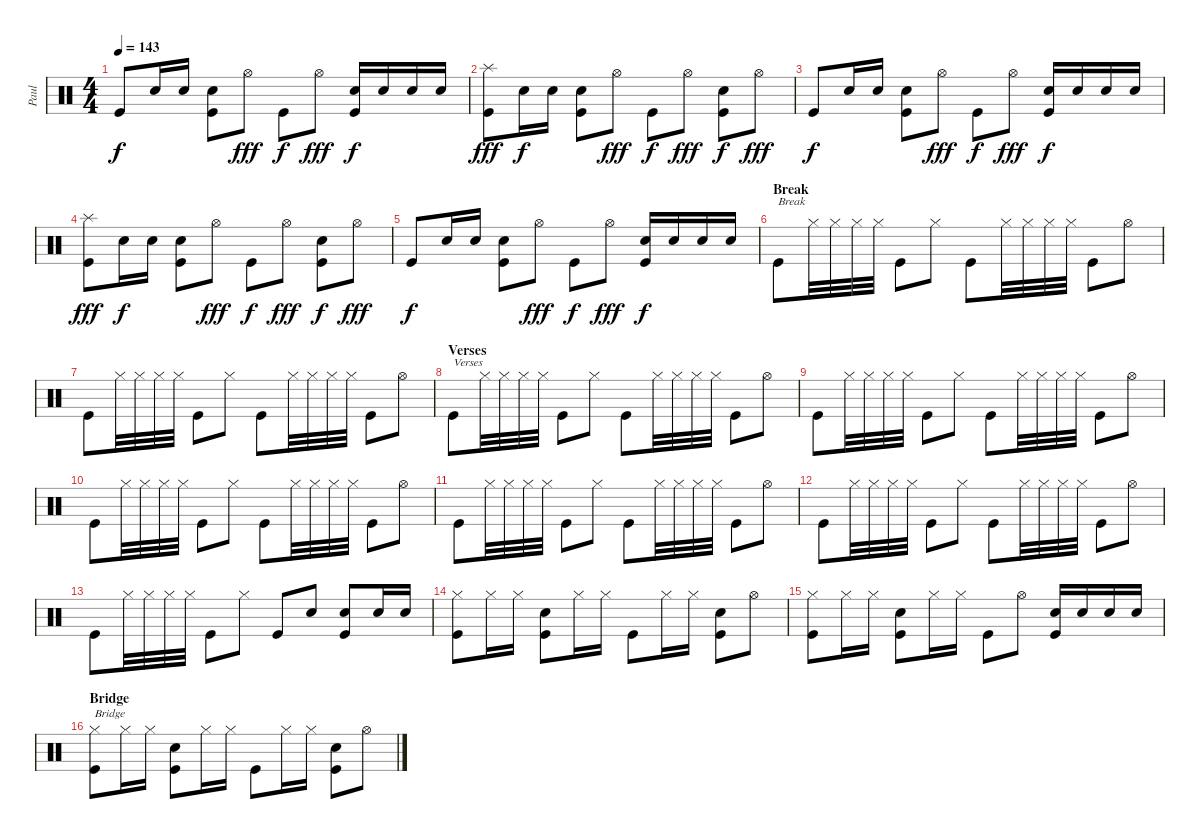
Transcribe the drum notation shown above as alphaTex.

\track ("Paul" "Paul") {instrument percussion}
\staff {score}
\articulation defaults
\ts (4 4)
\tempo 143
\clef neutral
\ks c "Kick (hit)".8{dy f} "Electric Snare (hit)".16 "Electric Snare (hit)".16
("Kick (hit)" "Electric Snare (hit)").8 "Hi-Hat (open)".8{dy fff} "Kick (hit)".8{dy f} "Hi-Hat (open)".8{dy fff} ("Kick (hit)" "Electric Snare (hit)").16{dy f} "Electric Snare (hit)".16 "Electric Snare (hit)".16 "Electric Snare (hit)".16 |
("Splash (hit)" "Kick (hit)").8{dy fff} "Electric Snare (hit)".16{dy f} "Electric Snare (hit)".16 ("Kick (hit)" "Electric Snare (hit)").8 "Hi-Hat (open)".8{dy fff} "Kick (hit)".8{dy f} "Hi-Hat (open)".8{dy fff} ("Kick (hit)" "Electric Snare (hit)").8{dy f} "Hi-Hat (open)".8{dy fff} |
"Kick (hit)".8{dy f} "Electric Snare (hit)".16 "Electric Snare (hit)".16 ("Kick (hit)" "Electric Snare (hit)").8 "Hi-Hat (open)".8{dy fff} "Kick (hit)".8{dy f} "Hi-Hat (open)".8{dy fff} ("Kick (hit)" "Electric Snare (hit)").16{dy f} "Electric Snare (hit)".16 "Electric Snare (hit)".16 "Electric Snare (hit)".16 |
("Splash (hit)" "Kick (hit)").8{dy fff} "Electric Snare (hit)".16{dy f} "Electric Snare (hit)".16 ("Kick (hit)" "Electric Snare (hit)").8 "Hi-Hat (open)".8{dy fff} "Kick (hit)".8{dy f} "Hi-Hat (open)".8{dy fff} ("Kick (hit)" "Electric Snare (hit)").8{dy f} "Hi-Hat (open)".8{dy fff} |
"Kick (hit)".8{dy f} "Electric Snare (hit)".16 "Electric Snare (hit)".16 ("Kick (hit)" "Electric Snare (hit)").8 "Hi-Hat (open)".8{dy fff} "Kick (hit)".8{dy f} "Hi-Hat (open)".8{dy fff} ("Kick (hit)" "Electric Snare (hit)").16{dy f} "Electric Snare (hit)".16 "Electric Snare (hit)".16 "Electric Snare (hit)".16 |
\section ("" "Break")
"Kick (hit)".8{txt "Break"} "Hi-Hat (closed)".32 "Hi-Hat (closed)".32 "Hi-Hat (closed)".32 "Hi-Hat (closed)".32 "Kick (hit)".8 "Hi-Hat (closed)".8 "Kick (hit)".8 "Hi-Hat (closed)".32 "Hi-Hat (closed)".32 "Hi-Hat (closed)".32 "Hi-Hat (closed)".32 "Kick (hit)".8 "Hi-Hat (open)".8 |
"Kick (hit)".8 "Hi-Hat (closed)".32 "Hi-Hat (closed)".32 "Hi-Hat (closed)".32 "Hi-Hat (closed)".32 "Kick (hit)".8 "Hi-Hat (closed)".8 "Kick (hit)".8 "Hi-Hat (closed)".32 "Hi-Hat (closed)".32 "Hi-Hat (closed)".32 "Hi-Hat (closed)".32 "Kick (hit)".8 "Hi-Hat (open)".8 |
\section ("" "Verses")
"Kick (hit)".8{txt "Verses"} "Hi-Hat (closed)".32 "Hi-Hat (closed)".32 "Hi-Hat (closed)".32 "Hi-Hat (closed)".32 "Kick (hit)".8 "Hi-Hat (closed)".8 "Kick (hit)".8 "Hi-Hat (closed)".32 "Hi-Hat (closed)".32 "Hi-Hat (closed)".32 "Hi-Hat (closed)".32 "Kick (hit)".8 "Hi-Hat (open)".8 |
"Kick (hit)".8 "Hi-Hat (closed)".32 "Hi-Hat (closed)".32 "Hi-Hat (closed)".32 "Hi-Hat (closed)".32 "Kick (hit)".8 "Hi-Hat (closed)".8 "Kick (hit)".8 "Hi-Hat (closed)".32 "Hi-Hat (closed)".32 "Hi-Hat (closed)".32 "Hi-Hat (closed)".32 "Kick (hit)".8 "Hi-Hat (open)".8 |
"Kick (hit)".8 "Hi-Hat (closed)".32 "Hi-Hat (closed)".32 "Hi-Hat (closed)".32 "Hi-Hat (closed)".32 "Kick (hit)".8 "Hi-Hat (closed)".8 "Kick (hit)".8 "Hi-Hat (closed)".32 "Hi-Hat (closed)".32 "Hi-Hat (closed)".32 "Hi-Hat (closed)".32 "Kick (hit)".8 "Hi-Hat (open)".8 |
"Kick (hit)".8 "Hi-Hat (closed)".32 "Hi-Hat (closed)".32 "Hi-Hat (closed)".32 "Hi-Hat (closed)".32 "Kick (hit)".8 "Hi-Hat (closed)".8 "Kick (hit)".8 "Hi-Hat (closed)".32 "Hi-Hat (closed)".32 "Hi-Hat (closed)".32 "Hi-Hat (closed)".32 "Kick (hit)".8 "Hi-Hat (open)".8 |
"Kick (hit)".8 "Hi-Hat (closed)".32 "Hi-Hat (closed)".32 "Hi-Hat (closed)".32 "Hi-Hat (closed)".32 "Kick (hit)".8 "Hi-Hat (closed)".8 "Kick (hit)".8 "Hi-Hat (closed)".32 "Hi-Hat (closed)".32 "Hi-Hat (closed)".32 "Hi-Hat (closed)".32 "Kick (hit)".8 "Hi-Hat (open)".8 |
"Kick (hit)".8 "Hi-Hat (closed)".32 "Hi-Hat (closed)".32 "Hi-Hat (closed)".32 "Hi-Hat (closed)".32 "Kick (hit)".8 "Hi-Hat (closed)".8 "Kick (hit)".8 "Electric Snare (hit)".8 ("Kick (hit)" "Electric Snare (hit)").8 "Electric Snare (hit)".16 "Electric Snare (hit)".16 |
("Hi-Hat (closed)" "Kick (hit)").8 "Hi-Hat (closed)".16 "Hi-Hat (closed)".16 ("Kick (hit)" "Electric Snare (hit)").8 "Hi-Hat (closed)".16 "Hi-Hat (closed)".16 "Kick (hit)".8 "Hi-Hat (closed)".16 "Hi-Hat (closed)".16 ("Kick (hit)" "Electric Snare (hit)").8 "Hi-Hat (open)".8 |
("Hi-Hat (closed)" "Kick (hit)").8 "Hi-Hat (closed)".16 "Hi-Hat (closed)".16 ("Kick (hit)" "Electric Snare (hit)").8 "Hi-Hat (closed)".16 "Hi-Hat (closed)".16 "Kick (hit)".8 "Hi-Hat (open)".8 ("Kick (hit)" "Electric Snare (hit)").16 "Electric Snare (hit)".16 "Electric Snare (hit)".16 "Electric Snare (hit)".16 |
\section ("" "Bridge")
("Hi-Hat (closed)" "Kick (hit)").8{txt "Bridge"} "Hi-Hat (closed)".16 "Hi-Hat (closed)".16 ("Kick (hit)" "Electric Snare (hit)").8 "Hi-Hat (closed)".16 "Hi-Hat (closed)".16 "Kick (hit)".8 "Hi-Hat (closed)".16 "Hi-Hat (closed)".16 ("Kick (hit)" "Electric Snare (hit)").8 "Hi-Hat (open)".8
